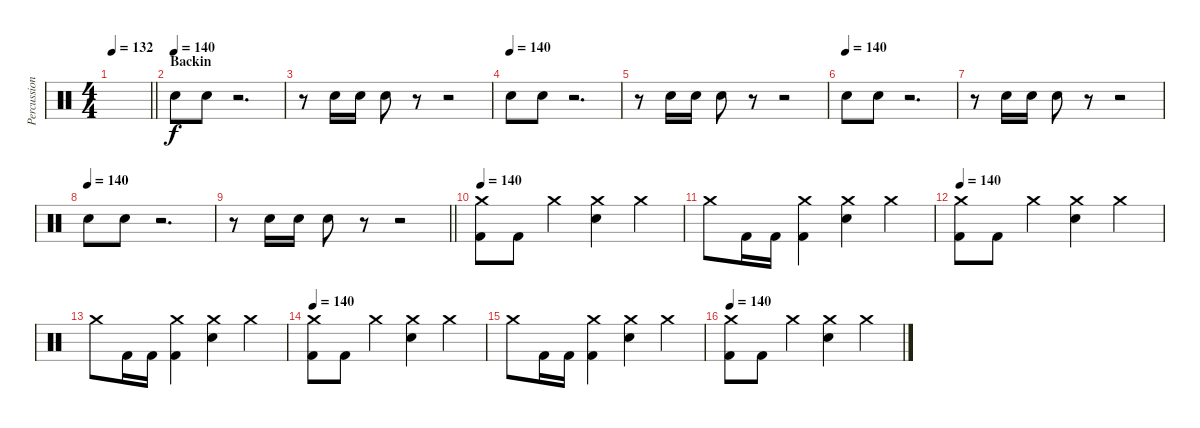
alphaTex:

\track ("Percussion" "Percussion") {instrument percussion}
\staff {score}
\articulation defaults
\ts (4 4)
\tempo 132
\clef neutral
\barLineRight lightlight
\ks c
|
\section ("" "Backin")
\tempo (140)
"Electric Snare (hit)".8 "Electric Snare (hit)".8 r.2{d} |
r.8 "Electric Snare (hit)".16 "Electric Snare (hit)".16 "Electric Snare (hit)".8 r.8 r.2 |
\tempo (140)
"Electric Snare (hit)".8 "Electric Snare (hit)".8 r.2{d} |
r.8 "Electric Snare (hit)".16 "Electric Snare (hit)".16 "Electric Snare (hit)".8 r.8 r.2 |
\tempo (140)
"Electric Snare (hit)".8 "Electric Snare (hit)".8 r.2{d} |
r.8 "Electric Snare (hit)".16 "Electric Snare (hit)".16 "Electric Snare (hit)".8 r.8 r.2 |
\tempo (140)
"Electric Snare (hit)".8 "Electric Snare (hit)".8 r.2{d} |
\barLineRight lightlight
r.8 "Electric Snare (hit)".16 "Electric Snare (hit)".16 "Electric Snare (hit)".8 r.8 r.2 |
\section ("" "")
\tempo 140
("Crash medium (hit)" "Kick (hit) 2").8 "Kick (hit) 2".8 "Crash medium (hit)".4 ("Crash medium (hit)" "Electric Snare (hit)").4 "Crash medium (hit)".4 |
"Crash medium (hit)".8 "Kick (hit) 2".16 "Kick (hit) 2".16 ("Crash medium (hit)" "Kick (hit) 2").4 ("Crash medium (hit)" "Electric Snare (hit)").4 "Crash medium (hit)".4 |
\tempo 140
("Crash medium (hit)" "Kick (hit) 2").8 "Kick (hit) 2".8 "Crash medium (hit)".4 ("Crash medium (hit)" "Electric Snare (hit)").4 "Crash medium (hit)".4 |
"Crash medium (hit)".8 "Kick (hit) 2".16 "Kick (hit) 2".16 ("Crash medium (hit)" "Kick (hit) 2").4 ("Crash medium (hit)" "Electric Snare (hit)").4 "Crash medium (hit)".4 |
\tempo 140
("Crash medium (hit)" "Kick (hit) 2").8 "Kick (hit) 2".8 "Crash medium (hit)".4 ("Crash medium (hit)" "Electric Snare (hit)").4 "Crash medium (hit)".4 |
"Crash medium (hit)".8 "Kick (hit) 2".16 "Kick (hit) 2".16 ("Crash medium (hit)" "Kick (hit) 2").4 ("Crash medium (hit)" "Electric Snare (hit)").4 "Crash medium (hit)".4 |
\tempo 140
("Crash medium (hit)" "Kick (hit) 2").8 "Kick (hit) 2".8 "Crash medium (hit)".4 ("Crash medium (hit)" "Electric Snare (hit)").4 "Crash medium (hit)".4
